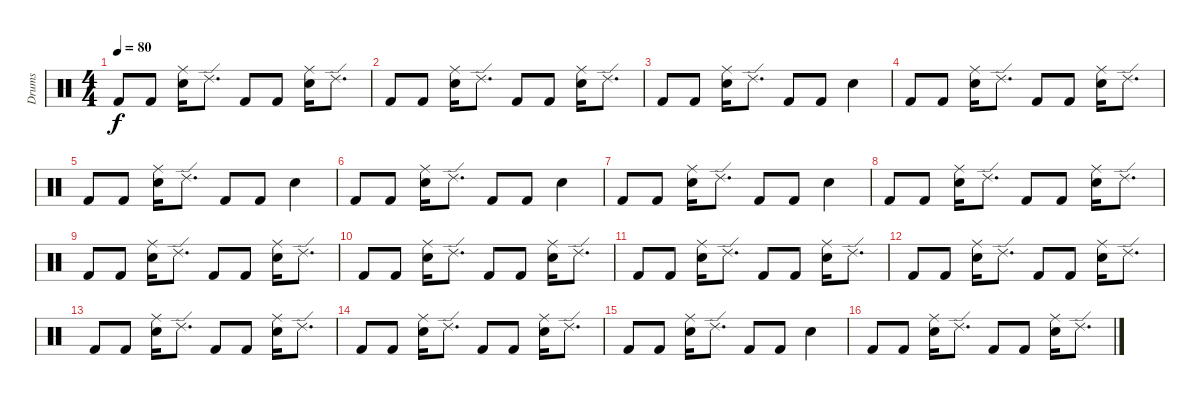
\track ("Drums" "Drums") {instrument percussion}
\staff {score}
\articulation defaults
\ts (4 4)
\tempo 80
\clef neutral
\ks c "Kick (hit) 2".8{dy f} "Kick (hit) 2".8
("Ride (middle)" "Snare (hit) 2").16 "Ride (edge) 2".8{d} "Kick (hit) 2".8 "Kick (hit) 2".8 ("Ride (middle)" "Snare (hit) 2").16 "Ride (edge) 2".8{d} |
"Kick (hit) 2".8 "Kick (hit) 2".8 ("Ride (middle)" "Snare (hit) 2").16 "Ride (edge) 2".8{d} "Kick (hit) 2".8 "Kick (hit) 2".8 ("Ride (middle)" "Snare (hit) 2").16 "Ride (edge) 2".8{d} |
"Kick (hit) 2".8 "Kick (hit) 2".8 ("Ride (middle)" "Snare (hit) 2").16 "Ride (edge) 2".8{d} "Kick (hit) 2".8 "Kick (hit) 2".8 "Snare (hit) 2".4 |
"Kick (hit) 2".8 "Kick (hit) 2".8 ("Ride (middle)" "Snare (hit) 2").16 "Ride (edge) 2".8{d} "Kick (hit) 2".8 "Kick (hit) 2".8 ("Ride (middle)" "Snare (hit) 2").16 "Ride (edge) 2".8{d} |
"Kick (hit) 2".8 "Kick (hit) 2".8 ("Ride (middle)" "Snare (hit) 2").16 "Ride (edge) 2".8{d} "Kick (hit) 2".8 "Kick (hit) 2".8 "Snare (hit) 2".4 |
"Kick (hit) 2".8 "Kick (hit) 2".8 ("Ride (middle)" "Snare (hit) 2").16 "Ride (edge) 2".8{d} "Kick (hit) 2".8 "Kick (hit) 2".8 "Snare (hit) 2".4 |
"Kick (hit) 2".8 "Kick (hit) 2".8 ("Ride (middle)" "Snare (hit) 2").16 "Ride (edge) 2".8{d} "Kick (hit) 2".8 "Kick (hit) 2".8 "Snare (hit) 2".4 |
"Kick (hit) 2".8 "Kick (hit) 2".8 ("Ride (middle)" "Snare (hit) 2").16 "Ride (edge) 2".8{d} "Kick (hit) 2".8 "Kick (hit) 2".8 ("Ride (middle)" "Snare (hit) 2").16 "Ride (edge) 2".8{d} |
"Kick (hit) 2".8 "Kick (hit) 2".8 ("Ride (middle)" "Snare (hit) 2").16 "Ride (edge) 2".8{d} "Kick (hit) 2".8 "Kick (hit) 2".8 ("Ride (middle)" "Snare (hit) 2").16 "Ride (edge) 2".8{d} |
"Kick (hit) 2".8 "Kick (hit) 2".8 ("Ride (middle)" "Snare (hit) 2").16 "Ride (edge) 2".8{d} "Kick (hit) 2".8 "Kick (hit) 2".8 ("Ride (middle)" "Snare (hit) 2").16 "Ride (edge) 2".8{d} |
"Kick (hit) 2".8 "Kick (hit) 2".8 ("Ride (middle)" "Snare (hit) 2").16 "Ride (edge) 2".8{d} "Kick (hit) 2".8 "Kick (hit) 2".8 ("Ride (middle)" "Snare (hit) 2").16 "Ride (edge) 2".8{d} |
"Kick (hit) 2".8 "Kick (hit) 2".8 ("Ride (middle)" "Snare (hit) 2").16 "Ride (edge) 2".8{d} "Kick (hit) 2".8 "Kick (hit) 2".8 ("Ride (middle)" "Snare (hit) 2").16 "Ride (edge) 2".8{d} |
"Kick (hit) 2".8 "Kick (hit) 2".8 ("Ride (middle)" "Snare (hit) 2").16 "Ride (edge) 2".8{d} "Kick (hit) 2".8 "Kick (hit) 2".8 ("Ride (middle)" "Snare (hit) 2").16 "Ride (edge) 2".8{d} |
"Kick (hit) 2".8 "Kick (hit) 2".8 ("Ride (middle)" "Snare (hit) 2").16 "Ride (edge) 2".8{d} "Kick (hit) 2".8 "Kick (hit) 2".8 ("Ride (middle)" "Snare (hit) 2").16 "Ride (edge) 2".8{d} |
"Kick (hit) 2".8 "Kick (hit) 2".8 ("Ride (middle)" "Snare (hit) 2").16 "Ride (edge) 2".8{d} "Kick (hit) 2".8 "Kick (hit) 2".8 "Snare (hit) 2".4 |
"Kick (hit) 2".8 "Kick (hit) 2".8 ("Ride (middle)" "Snare (hit) 2").16 "Ride (edge) 2".8{d} "Kick (hit) 2".8 "Kick (hit) 2".8 ("Ride (middle)" "Snare (hit) 2").16 "Ride (edge) 2".8{d}
